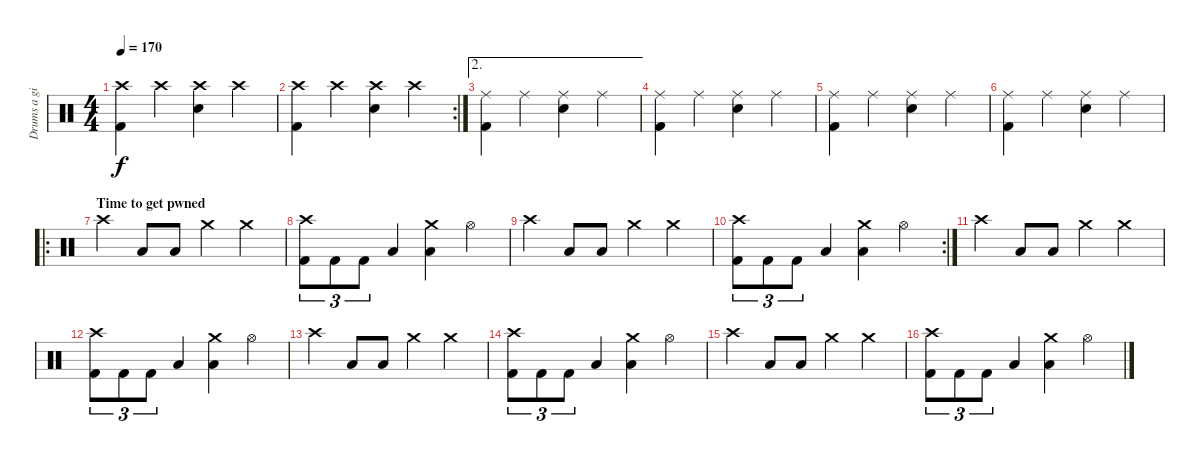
\track ("Drums a girl could play" "Drums a gi") {instrument percussion}
\staff {score}
\articulation defaults
\ts (4 4)
\tempo 170
\clef neutral
\ks c
("Crash high (hit)" "Kick (hit) 2").4{dy f} "Crash high (hit)".4 ("Crash high (hit)" "Electric Snare (hit)").4 "Crash high (hit)".4 |
\rc 2
("Crash high (hit)" "Kick (hit) 2").4 "Crash high (hit)".4 ("Crash high (hit)" "Electric Snare (hit)").4 "Crash high (hit)".4 |
\ae 2
("Ride (middle)" "Kick (hit) 2").4 "Ride (middle)".4 ("Ride (middle)" "Electric Snare (hit)").4 "Ride (middle)".4 |
("Ride (middle)" "Kick (hit) 2").4 "Ride (middle)".4 ("Ride (middle)" "Electric Snare (hit)").4 "Ride (middle)".4 |
("Ride (middle)" "Kick (hit) 2").4 "Ride (middle)".4 ("Ride (middle)" "Electric Snare (hit)").4 "Ride (middle)".4 |
("Ride (middle)" "Kick (hit) 2").4 "Ride (middle)".4 ("Ride (middle)" "Electric Snare (hit)").4 "Ride (middle)".4 |
\ro
\section ("" "Time to get pwned")
"Crash high (hit)".4 "Low Floor Tom (hit)".8 "Low Floor Tom (hit)".8 "Crash medium (hit)".4 "Crash medium (hit)".4 |
("Crash high (hit)" "Kick (hit) 2").8{tu (3 2)} "Kick (hit) 2".8{tu (3 2)} "Kick (hit) 2".8{tu (3 2)} "Low Floor Tom (hit)".4 ("Crash medium (hit)" "Low Floor Tom (hit)").4 "Hi-Hat (open)".4 |
"Crash high (hit)".4 "Low Floor Tom (hit)".8 "Low Floor Tom (hit)".8 "Crash medium (hit)".4 "Crash medium (hit)".4 |
\rc 2
("Crash high (hit)" "Kick (hit) 2").8{tu (3 2)} "Kick (hit) 2".8{tu (3 2)} "Kick (hit) 2".8{tu (3 2)} "Low Floor Tom (hit)".4 ("Crash medium (hit)" "Low Floor Tom (hit)").4 "Hi-Hat (open)".4 |
"Crash high (hit)".4 "Low Floor Tom (hit)".8 "Low Floor Tom (hit)".8 "Crash medium (hit)".4 "Crash medium (hit)".4 |
("Crash high (hit)" "Kick (hit) 2").8{tu (3 2)} "Kick (hit) 2".8{tu (3 2)} "Kick (hit) 2".8{tu (3 2)} "Low Floor Tom (hit)".4 ("Crash medium (hit)" "Low Floor Tom (hit)").4 "Hi-Hat (open)".4 |
"Crash high (hit)".4 "Low Floor Tom (hit)".8 "Low Floor Tom (hit)".8 "Crash medium (hit)".4 "Crash medium (hit)".4 |
("Crash high (hit)" "Kick (hit) 2").8{tu (3 2)} "Kick (hit) 2".8{tu (3 2)} "Kick (hit) 2".8{tu (3 2)} "Low Floor Tom (hit)".4 ("Crash medium (hit)" "Low Floor Tom (hit)").4 "Hi-Hat (open)".4 |
"Crash high (hit)".4 "Low Floor Tom (hit)".8 "Low Floor Tom (hit)".8 "Crash medium (hit)".4 "Crash medium (hit)".4 |
("Crash high (hit)" "Kick (hit) 2").8{tu (3 2)} "Kick (hit) 2".8{tu (3 2)} "Kick (hit) 2".8{tu (3 2)} "Low Floor Tom (hit)".4 ("Crash medium (hit)" "Low Floor Tom (hit)").4 "Hi-Hat (open)".4
